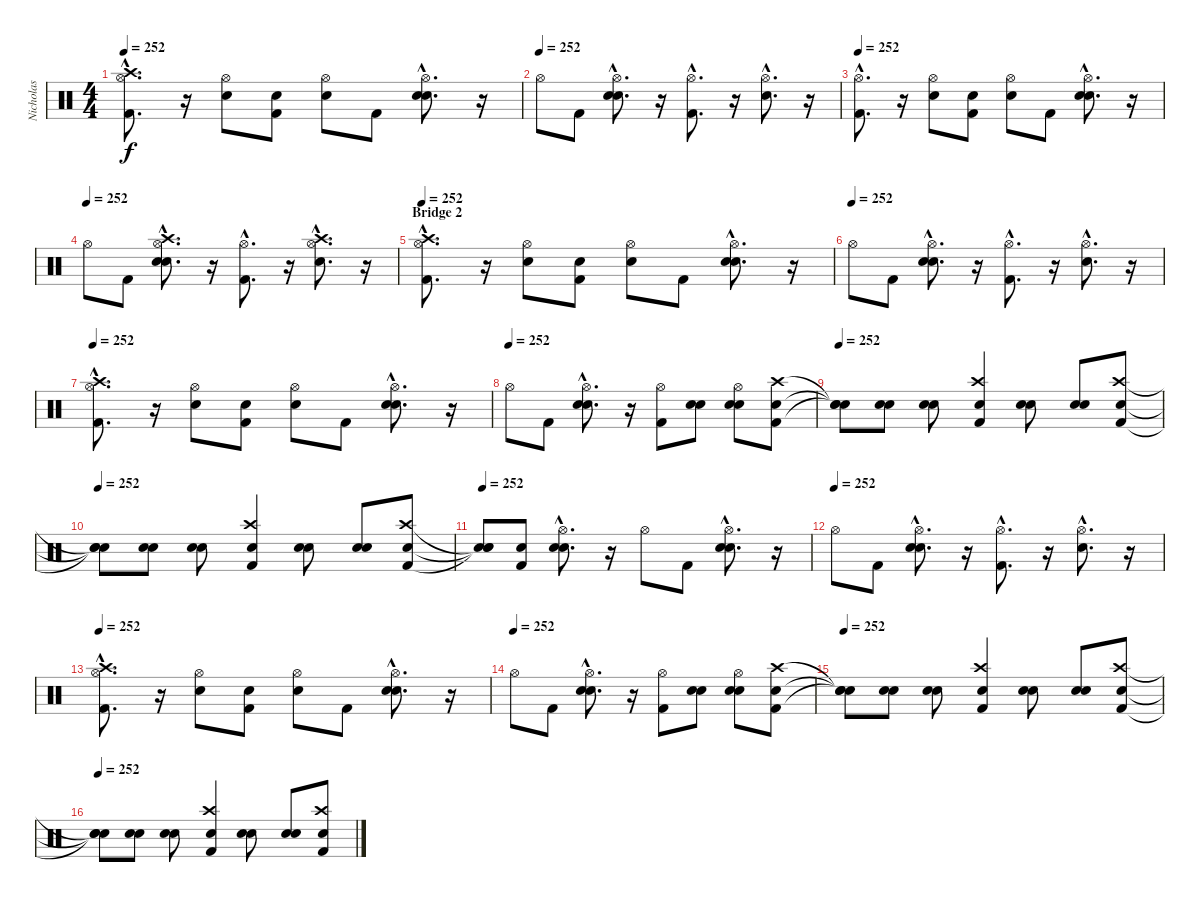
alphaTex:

\track ("Nicholas" "Nicholas") {instrument percussion}
\staff {score}
\articulation defaults
\ts (4 4)
\tempo 252
\clef neutral
\ks c
("Kick (hit) 2"{hac} "Hi-Hat (open)"{hac} "Crash high (hit)"{hac}).8{d dy f} r.16 ("Snare (hit) 2" "Hi-Hat (open)").8 ("Snare (hit)" "Kick (hit) 2").8 ("Snare (hit)" "Hi-Hat (open)").8 "Kick (hit) 2".8 ("Snare (hit)"{hac} "Snare (hit) 2"{hac} "Hi-Hat (open)"{hac}).8{d} r.16 |
\tempo (252)
"Hi-Hat (open)".8 "Kick (hit) 2".8 ("Snare (hit)"{hac} "Snare (hit) 2"{hac} "Hi-Hat (open)"{hac}).8{d} r.16 ("Kick (hit) 2"{hac} "Hi-Hat (open)"{hac}).8{d} r.16 ("Snare (hit) 2"{hac} "Hi-Hat (open)"{hac}).8{d} r.16 |
\tempo 252
("Kick (hit) 2"{hac} "Hi-Hat (open)"{hac}).8{d} r.16 ("Snare (hit) 2" "Hi-Hat (open)").8 ("Snare (hit)" "Kick (hit) 2").8 ("Snare (hit)" "Hi-Hat (open)").8 "Kick (hit) 2".8 ("Snare (hit)"{hac} "Snare (hit) 2"{hac} "Hi-Hat (open)"{hac}).8{d} r.16 |
\tempo (252)
"Hi-Hat (open)".8 "Kick (hit) 2".8 ("Snare (hit)"{hac} "Snare (hit) 2"{hac} "Hi-Hat (open)"{hac} "Crash high (hit)"{hac}).8{d} r.16 ("Kick (hit) 2"{hac} "Hi-Hat (open)"{hac}).8{d} r.16 ("Snare (hit) 2"{hac} "Hi-Hat (open)"{hac} "Crash high (hit)"{hac}).8{d} r.16 |
\section ("" "Bridge 2")
\tempo 252
("Kick (hit) 2"{hac} "Hi-Hat (open)"{hac} "Crash high (hit)"{hac}).8{d} r.16 ("Snare (hit) 2" "Hi-Hat (open)").8 ("Snare (hit)" "Kick (hit) 2").8 ("Snare (hit)" "Hi-Hat (open)").8 "Kick (hit) 2".8 ("Snare (hit)"{hac} "Snare (hit) 2"{hac} "Hi-Hat (open)"{hac}).8{d} r.16 |
\tempo (252)
"Hi-Hat (open)".8 "Kick (hit) 2".8 ("Snare (hit)"{hac} "Snare (hit) 2"{hac} "Hi-Hat (open)"{hac}).8{d} r.16 ("Kick (hit) 2"{hac} "Hi-Hat (open)"{hac}).8{d} r.16 ("Snare (hit) 2"{hac} "Hi-Hat (open)"{hac}).8{d} r.16 |
\tempo 252
("Kick (hit) 2"{hac} "Hi-Hat (open)"{hac} "Crash high (hit)"{hac}).8{d} r.16 ("Snare (hit) 2" "Hi-Hat (open)").8 ("Snare (hit)" "Kick (hit) 2").8 ("Snare (hit)" "Hi-Hat (open)").8 "Kick (hit) 2".8 ("Snare (hit)"{hac} "Snare (hit) 2"{hac} "Hi-Hat (open)"{hac}).8{d} r.16 |
\tempo (252)
"Hi-Hat (open)".8 "Kick (hit) 2".8 ("Snare (hit)"{hac} "Snare (hit) 2"{hac} "Hi-Hat (open)"{hac}).8{d} r.16 ("Kick (hit) 2" "Hi-Hat (open)").8 ("Snare (hit)" "Snare (hit) 2").8 ("Snare (hit)" "Snare (hit) 2" "Hi-Hat (open)").8 ("Snare (hit)" "Kick (hit) 2" "Crash high (hit)").8 |
\tempo 252
("Snare (hit)"{t} "Snare (hit)"{t} "Snare (hit)"{t}).8 ("Snare (hit)" "Snare (hit) 2").8 ("Snare (hit)" "Snare (hit) 2").8 ("Snare (hit)" "Kick (hit) 2" "Crash high (hit)").4 ("Snare (hit)" "Snare (hit) 2").8 ("Snare (hit)" "Snare (hit) 2").8 ("Snare (hit)" "Kick (hit) 2" "Crash high (hit)").8 |
\tempo 252
("Snare (hit)"{t} "Snare (hit)"{t} "Snare (hit)"{t}).8 ("Snare (hit)" "Snare (hit) 2").8 ("Snare (hit)" "Snare (hit) 2").8 ("Snare (hit)" "Kick (hit) 2" "Crash high (hit)").4 ("Snare (hit)" "Snare (hit) 2").8 ("Snare (hit)" "Snare (hit) 2").8 ("Snare (hit)" "Kick (hit) 2" "Crash high (hit)").8 |
\tempo 252
("Snare (hit)"{t} "Snare (hit)"{t} "Snare (hit)"{t}).8 ("Snare (hit)" "Kick (hit) 2").8 ("Snare (hit)"{hac} "Snare (hit) 2"{hac} "Hi-Hat (open)"{hac}).8{d} r.16 "Hi-Hat (open)".8 "Kick (hit) 2".8 ("Snare (hit)"{hac} "Snare (hit) 2"{hac} "Hi-Hat (open)"{hac}).8{d} r.16 |
\tempo (252)
"Hi-Hat (open)".8 "Kick (hit) 2".8 ("Snare (hit)"{hac} "Snare (hit) 2"{hac} "Hi-Hat (open)"{hac}).8{d} r.16 ("Kick (hit) 2"{hac} "Hi-Hat (open)"{hac}).8{d} r.16 ("Snare (hit) 2"{hac} "Hi-Hat (open)"{hac}).8{d} r.16 |
\tempo 252
("Kick (hit) 2"{hac} "Hi-Hat (open)"{hac} "Crash high (hit)"{hac}).8{d} r.16 ("Snare (hit) 2" "Hi-Hat (open)").8 ("Snare (hit)" "Kick (hit) 2").8 ("Snare (hit)" "Hi-Hat (open)").8 "Kick (hit) 2".8 ("Snare (hit)"{hac} "Snare (hit) 2"{hac} "Hi-Hat (open)"{hac}).8{d} r.16 |
\tempo (252)
"Hi-Hat (open)".8 "Kick (hit) 2".8 ("Snare (hit)"{hac} "Snare (hit) 2"{hac} "Hi-Hat (open)"{hac}).8{d} r.16 ("Kick (hit) 2" "Hi-Hat (open)").8 ("Snare (hit)" "Snare (hit) 2").8 ("Snare (hit)" "Snare (hit) 2" "Hi-Hat (open)").8 ("Snare (hit)" "Kick (hit) 2" "Crash high (hit)").8 |
\tempo 252
("Snare (hit)"{t} "Snare (hit)"{t} "Snare (hit)"{t}).8 ("Snare (hit)" "Snare (hit) 2").8 ("Snare (hit)" "Snare (hit) 2").8 ("Snare (hit)" "Kick (hit) 2" "Crash high (hit)").4 ("Snare (hit)" "Snare (hit) 2").8 ("Snare (hit)" "Snare (hit) 2").8 ("Snare (hit)" "Kick (hit) 2" "Crash high (hit)").8 |
\tempo 252
("Snare (hit)"{t} "Snare (hit)"{t} "Snare (hit)"{t}).8 ("Snare (hit)" "Snare (hit) 2").8 ("Snare (hit)" "Snare (hit) 2").8 ("Snare (hit)" "Kick (hit) 2" "Crash high (hit)").4 ("Snare (hit)" "Snare (hit) 2").8 ("Snare (hit)" "Snare (hit) 2").8 ("Snare (hit)" "Kick (hit) 2" "Crash high (hit)").8
